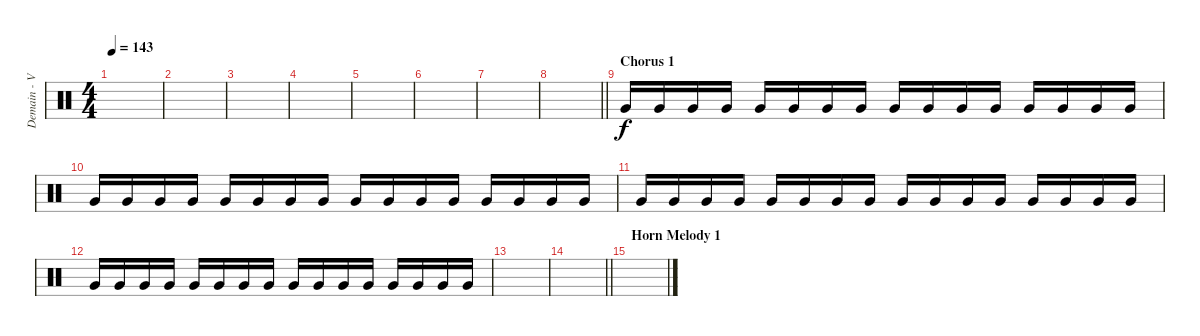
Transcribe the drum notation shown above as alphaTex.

\track ("Demain - Various Perc." "Demain - V") {instrument percussion}
\staff {score}
\articulation defaults
\ts (4 4)
\tempo 143
\clef neutral
\ks c
|
|
|
|
|
|
|
\barLineRight lightlight
|
\section ("" "Chorus 1")
"Very Low Tom (hit)".16 "Very Low Tom (hit)".16 "Very Low Tom (hit)".16 "Very Low Tom (hit)".16 "Very Low Tom (hit)".16 "Very Low Tom (hit)".16 "Very Low Tom (hit)".16 "Very Low Tom (hit)".16 "Very Low Tom (hit)".16 "Very Low Tom (hit)".16 "Very Low Tom (hit)".16 "Very Low Tom (hit)".16 "Very Low Tom (hit)".16 "Very Low Tom (hit)".16 "Very Low Tom (hit)".16 "Very Low Tom (hit)".16 |
"Very Low Tom (hit)".16 "Very Low Tom (hit)".16 "Very Low Tom (hit)".16 "Very Low Tom (hit)".16 "Very Low Tom (hit)".16 "Very Low Tom (hit)".16 "Very Low Tom (hit)".16 "Very Low Tom (hit)".16 "Very Low Tom (hit)".16 "Very Low Tom (hit)".16 "Very Low Tom (hit)".16 "Very Low Tom (hit)".16 "Very Low Tom (hit)".16 "Very Low Tom (hit)".16 "Very Low Tom (hit)".16 "Very Low Tom (hit)".16 |
"Very Low Tom (hit)".16 "Very Low Tom (hit)".16 "Very Low Tom (hit)".16 "Very Low Tom (hit)".16 "Very Low Tom (hit)".16 "Very Low Tom (hit)".16 "Very Low Tom (hit)".16 "Very Low Tom (hit)".16 "Very Low Tom (hit)".16 "Very Low Tom (hit)".16 "Very Low Tom (hit)".16 "Very Low Tom (hit)".16 "Very Low Tom (hit)".16 "Very Low Tom (hit)".16 "Very Low Tom (hit)".16 "Very Low Tom (hit)".16 |
"Very Low Tom (hit)".16 "Very Low Tom (hit)".16 "Very Low Tom (hit)".16 "Very Low Tom (hit)".16 "Very Low Tom (hit)".16 "Very Low Tom (hit)".16 "Very Low Tom (hit)".16 "Very Low Tom (hit)".16 "Very Low Tom (hit)".16 "Very Low Tom (hit)".16 "Very Low Tom (hit)".16 "Very Low Tom (hit)".16 "Very Low Tom (hit)".16 "Very Low Tom (hit)".16 "Very Low Tom (hit)".16 "Very Low Tom (hit)".16 |
|
\barLineRight lightlight
|
\section ("" "Horn Melody 1")
